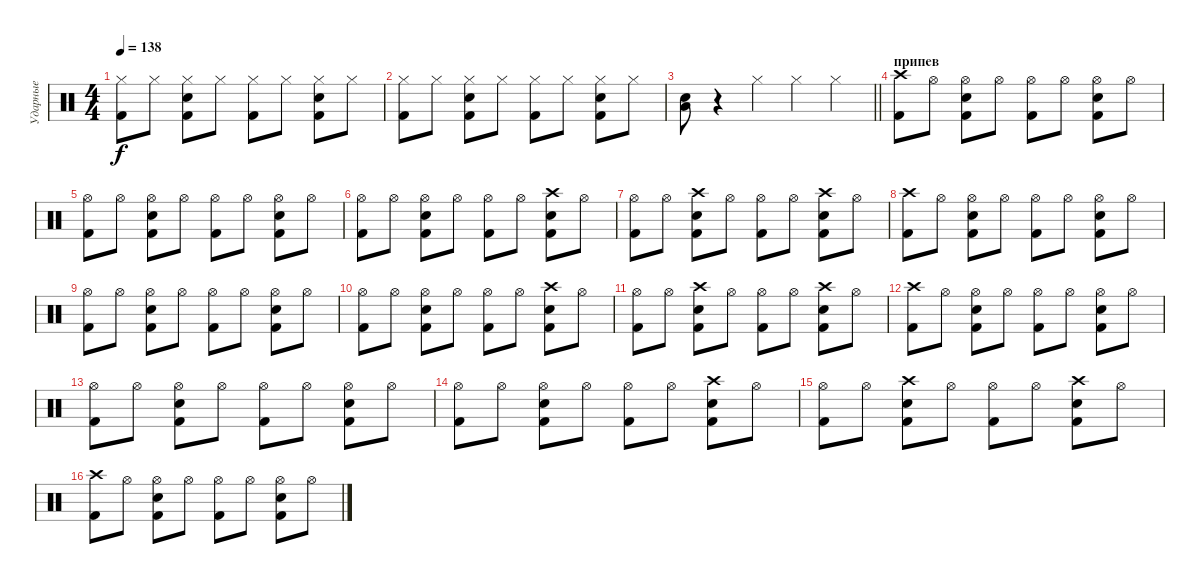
\track ("Ударные" "Ударные") {instrument percussion}
\staff {score}
\articulation defaults
\ts (4 4)
\tempo 138
\clef neutral
\ks c
("Hi-Hat (closed)" "Kick (hit) 2").8{dy f} "Hi-Hat (closed)".8 ("Hi-Hat (closed)" "Electric Snare (hit)" "Kick (hit) 2").8 "Hi-Hat (closed)".8 ("Hi-Hat (closed)" "Kick (hit) 2").8 "Hi-Hat (closed)".8 ("Hi-Hat (closed)" "Electric Snare (hit)" "Kick (hit) 2").8 "Hi-Hat (closed)".8 |
("Hi-Hat (closed)" "Kick (hit) 2").8 "Hi-Hat (closed)".8 ("Hi-Hat (closed)" "Electric Snare (hit)" "Kick (hit) 2").8 "Hi-Hat (closed)".8 ("Hi-Hat (closed)" "Kick (hit) 2").8 "Hi-Hat (closed)".8 ("Hi-Hat (closed)" "Electric Snare (hit)" "Kick (hit) 2").8 "Hi-Hat (closed)".8 |
\barLineRight lightlight
("Electric Snare (hit)" "Low Tom (hit)").8 r.4 "Hi-Hat (closed)".4 "Hi-Hat (closed)".4 "Hi-Hat (closed)".4 |
\section ("" "припев")
("Crash high (hit)" "Kick (hit) 2").8 "Hi-Hat (open)".8 ("Hi-Hat (open)" "Electric Snare (hit)" "Kick (hit) 2").8 "Hi-Hat (open)".8 ("Hi-Hat (open)" "Kick (hit) 2").8 "Hi-Hat (open)".8 ("Hi-Hat (open)" "Electric Snare (hit)" "Kick (hit) 2").8 "Hi-Hat (open)".8 |
("Hi-Hat (open)" "Kick (hit) 2").8 "Hi-Hat (open)".8 ("Hi-Hat (open)" "Electric Snare (hit)" "Kick (hit) 2").8 "Hi-Hat (open)".8 ("Hi-Hat (open)" "Kick (hit) 2").8 "Hi-Hat (open)".8 ("Hi-Hat (open)" "Electric Snare (hit)" "Kick (hit) 2").8 "Hi-Hat (open)".8 |
("Hi-Hat (open)" "Kick (hit) 2").8 "Hi-Hat (open)".8 ("Hi-Hat (open)" "Electric Snare (hit)" "Kick (hit) 2").8 "Hi-Hat (open)".8 ("Hi-Hat (open)" "Kick (hit) 2").8 "Hi-Hat (open)".8 ("Crash high (hit)" "Electric Snare (hit)" "Kick (hit) 2").8 "Hi-Hat (open)".8 |
("Hi-Hat (open)" "Kick (hit) 2").8 "Hi-Hat (open)".8 ("Crash high (hit)" "Electric Snare (hit)" "Kick (hit) 2").8 "Hi-Hat (open)".8 ("Hi-Hat (open)" "Kick (hit) 2").8 "Hi-Hat (open)".8 ("Crash high (hit)" "Electric Snare (hit)" "Kick (hit) 2").8 "Hi-Hat (open)".8 |
("Crash high (hit)" "Kick (hit) 2").8 "Hi-Hat (open)".8 ("Hi-Hat (open)" "Electric Snare (hit)" "Kick (hit) 2").8 "Hi-Hat (open)".8 ("Hi-Hat (open)" "Kick (hit) 2").8 "Hi-Hat (open)".8 ("Hi-Hat (open)" "Electric Snare (hit)" "Kick (hit) 2").8 "Hi-Hat (open)".8 |
("Hi-Hat (open)" "Kick (hit) 2").8 "Hi-Hat (open)".8 ("Hi-Hat (open)" "Electric Snare (hit)" "Kick (hit) 2").8 "Hi-Hat (open)".8 ("Hi-Hat (open)" "Kick (hit) 2").8 "Hi-Hat (open)".8 ("Hi-Hat (open)" "Electric Snare (hit)" "Kick (hit) 2").8 "Hi-Hat (open)".8 |
("Hi-Hat (open)" "Kick (hit) 2").8 "Hi-Hat (open)".8 ("Hi-Hat (open)" "Electric Snare (hit)" "Kick (hit) 2").8 "Hi-Hat (open)".8 ("Hi-Hat (open)" "Kick (hit) 2").8 "Hi-Hat (open)".8 ("Crash high (hit)" "Electric Snare (hit)" "Kick (hit) 2").8 "Hi-Hat (open)".8 |
("Hi-Hat (open)" "Kick (hit) 2").8 "Hi-Hat (open)".8 ("Crash high (hit)" "Electric Snare (hit)" "Kick (hit) 2").8 "Hi-Hat (open)".8 ("Hi-Hat (open)" "Kick (hit) 2").8 "Hi-Hat (open)".8 ("Crash high (hit)" "Electric Snare (hit)" "Kick (hit) 2").8 "Hi-Hat (open)".8 |
("Crash high (hit)" "Kick (hit) 2").8 "Hi-Hat (open)".8 ("Hi-Hat (open)" "Electric Snare (hit)" "Kick (hit) 2").8 "Hi-Hat (open)".8 ("Hi-Hat (open)" "Kick (hit) 2").8 "Hi-Hat (open)".8 ("Hi-Hat (open)" "Electric Snare (hit)" "Kick (hit) 2").8 "Hi-Hat (open)".8 |
("Hi-Hat (open)" "Kick (hit) 2").8 "Hi-Hat (open)".8 ("Hi-Hat (open)" "Electric Snare (hit)" "Kick (hit) 2").8 "Hi-Hat (open)".8 ("Hi-Hat (open)" "Kick (hit) 2").8 "Hi-Hat (open)".8 ("Hi-Hat (open)" "Electric Snare (hit)" "Kick (hit) 2").8 "Hi-Hat (open)".8 |
("Hi-Hat (open)" "Kick (hit) 2").8 "Hi-Hat (open)".8 ("Hi-Hat (open)" "Electric Snare (hit)" "Kick (hit) 2").8 "Hi-Hat (open)".8 ("Hi-Hat (open)" "Kick (hit) 2").8 "Hi-Hat (open)".8 ("Crash high (hit)" "Electric Snare (hit)" "Kick (hit) 2").8 "Hi-Hat (open)".8 |
("Hi-Hat (open)" "Kick (hit) 2").8 "Hi-Hat (open)".8 ("Crash high (hit)" "Electric Snare (hit)" "Kick (hit) 2").8 "Hi-Hat (open)".8 ("Hi-Hat (open)" "Kick (hit) 2").8 "Hi-Hat (open)".8 ("Crash high (hit)" "Electric Snare (hit)" "Kick (hit) 2").8 "Hi-Hat (open)".8 |
("Crash high (hit)" "Kick (hit) 2").8 "Hi-Hat (open)".8 ("Hi-Hat (open)" "Electric Snare (hit)" "Kick (hit) 2").8 "Hi-Hat (open)".8 ("Hi-Hat (open)" "Kick (hit) 2").8 "Hi-Hat (open)".8 ("Hi-Hat (open)" "Electric Snare (hit)" "Kick (hit) 2").8 "Hi-Hat (open)".8
